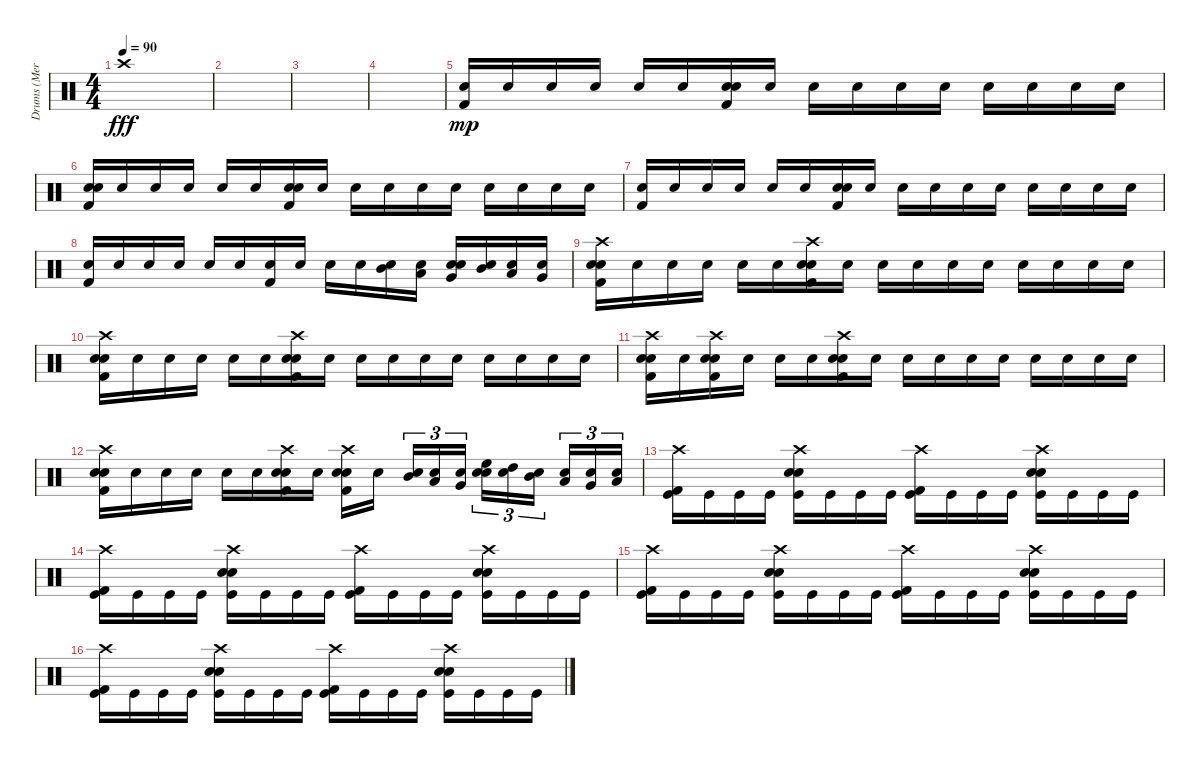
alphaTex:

\track ("Drums (Merlin)" "Drums (Mer") {instrument percussion}
\staff {score}
\articulation defaults
\ts (4 4)
\tempo 90
\clef neutral
\ks c "Crash high (hit)".1{dy fff}
|
|
|
|
("Kick (hit) 2" "Electric Snare (hit)").16{dy mp} "Electric Snare (hit)".16 "Electric Snare (hit)".16 "Electric Snare (hit)".16 "Electric Snare (hit)".16 "Electric Snare (hit)".16 ("Kick (hit) 2" "Snare (hit) 2" "Electric Snare (hit)").16 "Electric Snare (hit)".16 "Electric Snare (hit)".16 "Electric Snare (hit)".16 "Electric Snare (hit)".16 "Electric Snare (hit)".16 "Electric Snare (hit)".16 "Electric Snare (hit)".16 "Electric Snare (hit)".16 "Electric Snare (hit)".16 |
("Snare (hit) 2" "Kick (hit) 2" "Electric Snare (hit)").16 "Electric Snare (hit)".16 "Electric Snare (hit)".16 "Electric Snare (hit)".16 "Electric Snare (hit)".16 "Electric Snare (hit)".16 ("Kick (hit) 2" "Snare (hit) 2" "Electric Snare (hit)").16 "Electric Snare (hit)".16 "Electric Snare (hit)".16 "Electric Snare (hit)".16 "Electric Snare (hit)".16 "Electric Snare (hit)".16 "Electric Snare (hit)".16 "Electric Snare (hit)".16 "Electric Snare (hit)".16 "Electric Snare (hit)".16 |
("Kick (hit) 2" "Electric Snare (hit)").16 "Electric Snare (hit)".16 "Electric Snare (hit)".16 "Electric Snare (hit)".16 "Electric Snare (hit)".16 "Electric Snare (hit)".16 ("Kick (hit) 2" "Snare (hit) 2" "Electric Snare (hit)").16 "Electric Snare (hit)".16 "Electric Snare (hit)".16 "Electric Snare (hit)".16 "Electric Snare (hit)".16 "Electric Snare (hit)".16 "Electric Snare (hit)".16 "Electric Snare (hit)".16 "Electric Snare (hit)".16 "Electric Snare (hit)".16 |
("Kick (hit) 2" "Electric Snare (hit)").16 "Electric Snare (hit)".16 "Electric Snare (hit)".16 "Electric Snare (hit)".16 "Electric Snare (hit)".16 "Electric Snare (hit)".16 ("Kick (hit) 2" "Electric Snare (hit)").16 "Electric Snare (hit)".16 "Electric Snare (hit)".16 "Electric Snare (hit)".16 ("Mid Tom (hit)" "Electric Snare (hit)").16 ("Low Tom (hit)" "Electric Snare (hit)").16 ("Snare (hit) 2" "Very Low Tom (hit)" "Electric Snare (hit)").16 ("Mid Tom (hit)" "Electric Snare (hit)").16 ("Low Tom (hit)" "Electric Snare (hit)").16 ("Very Low Tom (hit)" "Electric Snare (hit)").16 |
("Crash high (hit)" "Snare (hit) 2" "Kick (hit) 2" "Electric Snare (hit)").16 "Electric Snare (hit)".16 "Electric Snare (hit)".16 "Electric Snare (hit)".16 "Electric Snare (hit)".16 "Electric Snare (hit)".16 ("Crash high (hit)" "Kick (hit) 2" "Snare (hit) 2" "Electric Snare (hit)").16 "Electric Snare (hit)".16 "Electric Snare (hit)".16 "Electric Snare (hit)".16 "Electric Snare (hit)".16 "Electric Snare (hit)".16 "Electric Snare (hit)".16 "Electric Snare (hit)".16 "Electric Snare (hit)".16 "Electric Snare (hit)".16 |
("Crash high (hit)" "Snare (hit) 2" "Kick (hit) 2" "Electric Snare (hit)").16 "Electric Snare (hit)".16 "Electric Snare (hit)".16 "Electric Snare (hit)".16 "Electric Snare (hit)".16 "Electric Snare (hit)".16 ("Crash high (hit)" "Kick (hit) 2" "Snare (hit) 2" "Electric Snare (hit)").16 "Electric Snare (hit)".16 "Electric Snare (hit)".16 "Electric Snare (hit)".16 "Electric Snare (hit)".16 "Electric Snare (hit)".16 "Electric Snare (hit)".16 "Electric Snare (hit)".16 "Electric Snare (hit)".16 "Electric Snare (hit)".16 |
("Crash high (hit)" "Snare (hit) 2" "Kick (hit) 2" "Electric Snare (hit)").16 "Electric Snare (hit)".16 ("Crash high (hit)" "Snare (hit) 2" "Kick (hit) 2" "Electric Snare (hit)").16 "Electric Snare (hit)".16 "Electric Snare (hit)".16 "Electric Snare (hit)".16 ("Crash high (hit)" "Kick (hit) 2" "Snare (hit) 2" "Electric Snare (hit)").16 "Electric Snare (hit)".16 "Electric Snare (hit)".16 "Electric Snare (hit)".16 "Electric Snare (hit)".16 "Electric Snare (hit)".16 "Electric Snare (hit)".16 "Electric Snare (hit)".16 "Electric Snare (hit)".16 "Electric Snare (hit)".16 |
("Crash high (hit)" "Snare (hit) 2" "Kick (hit) 2" "Electric Snare (hit)").16 "Electric Snare (hit)".16 "Electric Snare (hit)".16 "Electric Snare (hit)".16 "Electric Snare (hit)".16 "Electric Snare (hit)".16 ("Crash high (hit)" "Snare (hit) 2" "Kick (hit) 2" "Electric Snare (hit)").16 "Electric Snare (hit)".16 ("Crash high (hit)" "Snare (hit) 2" "Kick (hit) 2" "Electric Snare (hit)").16 "Electric Snare (hit)".16{beam splitsecondary} ("Mid Tom (hit)" "Electric Snare (hit)").16{tu (3 2)} ("Low Tom (hit)" "Electric Snare (hit)").16{tu (3 2)} ("Very Low Tom (hit)" "Electric Snare (hit)").16{tu (3 2)} ("Snare (hit) 2" "High Floor Tom (hit)" "Electric Snare (hit)").16{tu (3 2)} ("High Tom (hit)" "Electric Snare (hit)").16{tu (3 2)} ("Mid Tom (hit)" "Electric Snare (hit)").16{tu (3 2) beam splitsecondary} ("Low Tom (hit)" "Electric Snare (hit)").16{tu (3 2)} ("Very Low Tom (hit)" "Electric Snare (hit)").16{tu (3 2)} ("Low Floor Tom (hit)" "Electric Snare (hit)").16{tu (3 2)} |
("Crash high (hit)" "Kick (hit) 2" "Kick (hit)").16 "Kick (hit)".16 "Kick (hit)".16 "Kick (hit)".16 ("Electric Snare (hit)" "Crash high (hit)" "Snare (hit) 2" "Kick (hit)").16 "Kick (hit)".16 "Kick (hit)".16 "Kick (hit)".16 ("Crash high (hit)" "Kick (hit) 2" "Kick (hit)").16 "Kick (hit)".16 "Kick (hit)".16 "Kick (hit)".16 ("Electric Snare (hit)" "Crash high (hit)" "Snare (hit) 2" "Kick (hit)").16 "Kick (hit)".16 "Kick (hit)".16 "Kick (hit)".16 |
("Crash high (hit)" "Kick (hit) 2" "Kick (hit)").16 "Kick (hit)".16 "Kick (hit)".16 "Kick (hit)".16 ("Electric Snare (hit)" "Crash high (hit)" "Snare (hit) 2" "Kick (hit)").16 "Kick (hit)".16 "Kick (hit)".16 "Kick (hit)".16 ("Crash high (hit)" "Kick (hit) 2" "Kick (hit)").16 "Kick (hit)".16 "Kick (hit)".16 "Kick (hit)".16 ("Electric Snare (hit)" "Crash high (hit)" "Snare (hit) 2" "Kick (hit)").16 "Kick (hit)".16 "Kick (hit)".16 "Kick (hit)".16 |
("Crash high (hit)" "Kick (hit) 2" "Kick (hit)").16 "Kick (hit)".16 "Kick (hit)".16 "Kick (hit)".16 ("Electric Snare (hit)" "Crash high (hit)" "Snare (hit) 2" "Kick (hit)").16 "Kick (hit)".16 "Kick (hit)".16 "Kick (hit)".16 ("Crash high (hit)" "Kick (hit) 2" "Kick (hit)").16 "Kick (hit)".16 "Kick (hit)".16 "Kick (hit)".16 ("Electric Snare (hit)" "Crash high (hit)" "Snare (hit) 2" "Kick (hit)").16 "Kick (hit)".16 "Kick (hit)".16 "Kick (hit)".16 |
("Crash high (hit)" "Kick (hit) 2" "Kick (hit)").16 "Kick (hit)".16 "Kick (hit)".16 "Kick (hit)".16 ("Electric Snare (hit)" "Crash high (hit)" "Snare (hit) 2" "Kick (hit)").16 "Kick (hit)".16 "Kick (hit)".16 "Kick (hit)".16 ("Crash high (hit)" "Kick (hit) 2" "Kick (hit)").16 "Kick (hit)".16 "Kick (hit)".16 "Kick (hit)".16 ("Electric Snare (hit)" "Crash high (hit)" "Snare (hit) 2" "Kick (hit)").16 "Kick (hit)".16 "Kick (hit)".16 "Kick (hit)".16
